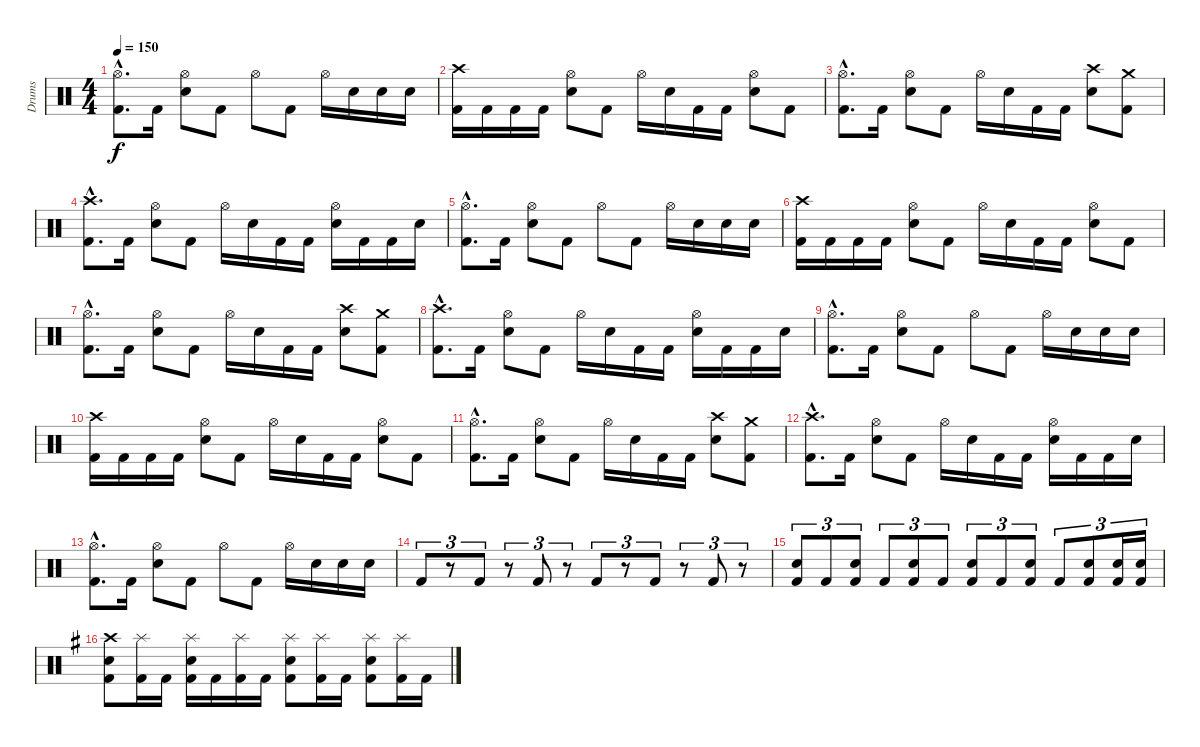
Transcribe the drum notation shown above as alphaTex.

\track ("Drums" "Drums") {instrument percussion}
\staff {score}
\articulation defaults
\ts (4 4)
\tempo 150
\clef neutral
\ks c
("Hi-Hat (open)"{hac} "Kick (hit) 2"{hac}).8{d dy f} "Kick (hit) 2".16 ("Hi-Hat (open)" "Snare (hit) 2").8 "Kick (hit) 2".8 "Hi-Hat (open)".8 "Kick (hit) 2".8 "Hi-Hat (open)".16 "Snare (hit) 2".16 "Snare (hit) 2".16 "Snare (hit) 2".16 |
("Crash high (hit)" "Kick (hit) 2").16 "Kick (hit) 2".16 "Kick (hit) 2".16 "Kick (hit) 2".16 ("Hi-Hat (open)" "Snare (hit) 2").8 "Kick (hit) 2".8 "Hi-Hat (open)".16 "Snare (hit) 2".16 "Kick (hit) 2".16 "Kick (hit) 2".16 ("Hi-Hat (open)" "Snare (hit) 2").8 "Kick (hit) 2".8 |
("Hi-Hat (open)"{hac} "Kick (hit) 2"{hac}).8{d} "Kick (hit) 2".16 ("Hi-Hat (open)" "Snare (hit) 2").8 "Kick (hit) 2".8 "Hi-Hat (open)".16 "Snare (hit) 2".16 "Kick (hit) 2".16 "Kick (hit) 2".16 ("Crash high (hit)" "Snare (hit) 2").8 ("Crash medium (hit)" "Kick (hit) 2").8 |
("Crash high (hit)"{hac} "Kick (hit) 2"{hac}).8{d} "Kick (hit) 2".16 ("Hi-Hat (open)" "Snare (hit) 2").8 "Kick (hit) 2".8 "Hi-Hat (open)".16 "Snare (hit) 2".16 "Kick (hit) 2".16 "Kick (hit) 2".16 ("Hi-Hat (open)" "Snare (hit) 2").16 "Kick (hit) 2".16 "Kick (hit) 2".16 "Snare (hit) 2".16 |
("Hi-Hat (open)"{hac} "Kick (hit) 2"{hac}).8{d} "Kick (hit) 2".16 ("Hi-Hat (open)" "Snare (hit) 2").8 "Kick (hit) 2".8 "Hi-Hat (open)".8 "Kick (hit) 2".8 "Hi-Hat (open)".16 "Snare (hit) 2".16 "Snare (hit) 2".16 "Snare (hit) 2".16 |
("Crash high (hit)" "Kick (hit) 2").16 "Kick (hit) 2".16 "Kick (hit) 2".16 "Kick (hit) 2".16 ("Hi-Hat (open)" "Snare (hit) 2").8 "Kick (hit) 2".8 "Hi-Hat (open)".16 "Snare (hit) 2".16 "Kick (hit) 2".16 "Kick (hit) 2".16 ("Hi-Hat (open)" "Snare (hit) 2").8 "Kick (hit) 2".8 |
("Hi-Hat (open)"{hac} "Kick (hit) 2"{hac}).8{d} "Kick (hit) 2".16 ("Hi-Hat (open)" "Snare (hit) 2").8 "Kick (hit) 2".8 "Hi-Hat (open)".16 "Snare (hit) 2".16 "Kick (hit) 2".16 "Kick (hit) 2".16 ("Crash high (hit)" "Snare (hit) 2").8 ("Crash medium (hit)" "Kick (hit) 2").8 |
("Crash high (hit)"{hac} "Kick (hit) 2"{hac}).8{d} "Kick (hit) 2".16 ("Hi-Hat (open)" "Snare (hit) 2").8 "Kick (hit) 2".8 "Hi-Hat (open)".16 "Snare (hit) 2".16 "Kick (hit) 2".16 "Kick (hit) 2".16 ("Hi-Hat (open)" "Snare (hit) 2").16 "Kick (hit) 2".16 "Kick (hit) 2".16 "Snare (hit) 2".16 |
("Hi-Hat (open)"{hac} "Kick (hit) 2"{hac}).8{d} "Kick (hit) 2".16 ("Hi-Hat (open)" "Snare (hit) 2").8 "Kick (hit) 2".8 "Hi-Hat (open)".8 "Kick (hit) 2".8 "Hi-Hat (open)".16 "Snare (hit) 2".16 "Snare (hit) 2".16 "Snare (hit) 2".16 |
("Crash high (hit)" "Kick (hit) 2").16 "Kick (hit) 2".16 "Kick (hit) 2".16 "Kick (hit) 2".16 ("Hi-Hat (open)" "Snare (hit) 2").8 "Kick (hit) 2".8 "Hi-Hat (open)".16 "Snare (hit) 2".16 "Kick (hit) 2".16 "Kick (hit) 2".16 ("Hi-Hat (open)" "Snare (hit) 2").8 "Kick (hit) 2".8 |
("Hi-Hat (open)"{hac} "Kick (hit) 2"{hac}).8{d} "Kick (hit) 2".16 ("Hi-Hat (open)" "Snare (hit) 2").8 "Kick (hit) 2".8 "Hi-Hat (open)".16 "Snare (hit) 2".16 "Kick (hit) 2".16 "Kick (hit) 2".16 ("Crash high (hit)" "Snare (hit) 2").8 ("Crash medium (hit)" "Kick (hit) 2").8 |
("Crash high (hit)"{hac} "Kick (hit) 2"{hac}).8{d} "Kick (hit) 2".16 ("Hi-Hat (open)" "Snare (hit) 2").8 "Kick (hit) 2".8 "Hi-Hat (open)".16 "Snare (hit) 2".16 "Kick (hit) 2".16 "Kick (hit) 2".16 ("Hi-Hat (open)" "Snare (hit) 2").16 "Kick (hit) 2".16 "Kick (hit) 2".16 "Snare (hit) 2".16 |
("Hi-Hat (open)"{hac} "Kick (hit) 2"{hac}).8{d} "Kick (hit) 2".16 ("Hi-Hat (open)" "Snare (hit) 2").8 "Kick (hit) 2".8 "Hi-Hat (open)".8 "Kick (hit) 2".8 "Hi-Hat (open)".16 "Snare (hit) 2".16 "Snare (hit) 2".16 "Snare (hit) 2".16 |
"Kick (hit) 2".8{tu (3 2)} r.8{tu (3 2)} "Kick (hit) 2".8{tu (3 2)} r.8{tu (3 2)} "Kick (hit) 2".8{tu (3 2)} r.8{tu (3 2)} "Kick (hit) 2".8{tu (3 2)} r.8{tu (3 2)} "Kick (hit) 2".8{tu (3 2)} r.8{tu (3 2)} "Kick (hit) 2".8{tu (3 2)} r.8{tu (3 2)} |
("Snare (hit) 2" "Kick (hit) 2").8{tu (3 2)} "Kick (hit) 2".8{tu (3 2)} ("Snare (hit) 2" "Kick (hit) 2").8{tu (3 2)} "Kick (hit) 2".8{tu (3 2)} ("Snare (hit) 2" "Kick (hit) 2").8{tu (3 2)} "Kick (hit) 2".8{tu (3 2)} ("Snare (hit) 2" "Kick (hit) 2").8{tu (3 2)} "Kick (hit) 2".8{tu (3 2)} ("Snare (hit) 2" "Kick (hit) 2").8{tu (3 2)} "Kick (hit) 2".8{tu (3 2)} ("Snare (hit) 2" "Kick (hit) 2").8{tu (3 2)} ("Snare (hit) 2" "Kick (hit) 2").16{tu (3 2)} ("Snare (hit) 2" "Kick (hit) 2").16{tu (3 2)} |
\ks g
("Crash high (hit)" "Snare (hit) 2" "Kick (hit) 2").8 ("Splash (hit)" "Kick (hit) 2").16 "Kick (hit) 2".16 ("Splash (hit)" "Snare (hit) 2" "Kick (hit) 2").16 "Kick (hit) 2".16 ("Splash (hit)" "Kick (hit) 2").16 "Kick (hit) 2".16 ("Splash (hit)" "Snare (hit) 2" "Kick (hit) 2").8 ("Splash (hit)" "Kick (hit) 2").16 "Kick (hit) 2".16 ("Splash (hit)" "Snare (hit) 2" "Kick (hit) 2").8 ("Splash (hit)" "Kick (hit) 2").16 "Kick (hit) 2".16
